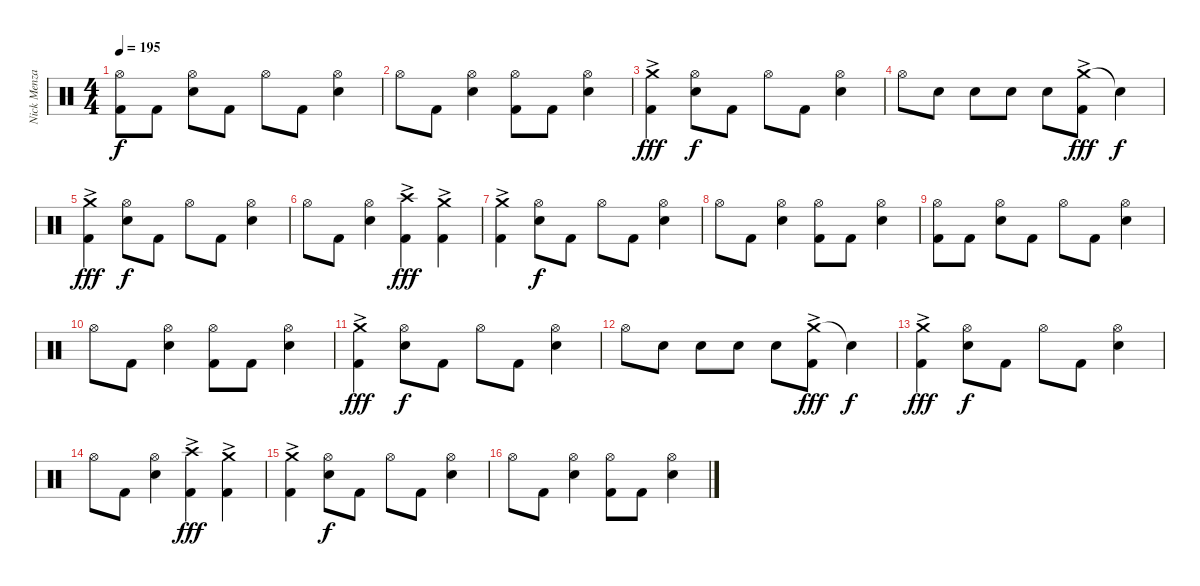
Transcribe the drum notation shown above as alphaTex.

\track ("Nick Menza" "Nick Menza") {instrument percussion}
\staff {score}
\articulation defaults
\ts (4 4)
\tempo 195
\clef neutral
\ks c
("Hi-Hat (open)" "Kick (hit) 2").8{dy f} "Kick (hit) 2".8 ("Hi-Hat (open)" "Snare (hit) 2").8 "Kick (hit) 2".8 "Hi-Hat (open)".8 "Kick (hit) 2".8 ("Hi-Hat (open)" "Snare (hit) 2").4 |
"Hi-Hat (open)".8 "Kick (hit) 2".8 ("Hi-Hat (open)" "Snare (hit) 2").4 ("Hi-Hat (open)" "Kick (hit) 2").8 "Kick (hit) 2".8 ("Hi-Hat (open)" "Snare (hit) 2").4 |
("Crash medium (hit)"{ac} "Kick (hit) 2").4{dy fff} ("Hi-Hat (open)" "Snare (hit) 2").8{dy f} "Kick (hit) 2".8 "Hi-Hat (open)".8 "Kick (hit) 2".8 ("Hi-Hat (open)" "Snare (hit) 2").4 |
"Hi-Hat (open)".8 "Snare (hit) 2".8 "Snare (hit) 2".8 "Snare (hit) 2".8 "Snare (hit) 2".8 ("Crash medium (hit)"{ac} "Kick (hit) 2").8{dy fff} "Snare (hit)"{t}.4{dy f} |
("Crash medium (hit)"{ac} "Kick (hit) 2").4{dy fff} ("Hi-Hat (open)" "Snare (hit) 2").8{dy f} "Kick (hit) 2".8 "Hi-Hat (open)".8 "Kick (hit) 2".8 ("Hi-Hat (open)" "Snare (hit) 2").4 |
"Hi-Hat (open)".8 "Kick (hit) 2".8 ("Hi-Hat (open)" "Snare (hit) 2").4 ("Crash high (hit)"{ac} "Kick (hit) 2").4{dy fff} ("Crash medium (hit)"{ac} "Kick (hit) 2").4 |
("Crash medium (hit)"{ac} "Kick (hit) 2").4 ("Hi-Hat (open)" "Snare (hit) 2").8{dy f} "Kick (hit) 2".8 "Hi-Hat (open)".8 "Kick (hit) 2".8 ("Hi-Hat (open)" "Snare (hit) 2").4 |
"Hi-Hat (open)".8 "Kick (hit) 2".8 ("Hi-Hat (open)" "Snare (hit) 2").4 ("Hi-Hat (open)" "Kick (hit) 2").8 "Kick (hit) 2".8 ("Hi-Hat (open)" "Snare (hit) 2").4 |
("Hi-Hat (open)" "Kick (hit) 2").8 "Kick (hit) 2".8 ("Hi-Hat (open)" "Snare (hit) 2").8 "Kick (hit) 2".8 "Hi-Hat (open)".8 "Kick (hit) 2".8 ("Hi-Hat (open)" "Snare (hit) 2").4 |
"Hi-Hat (open)".8 "Kick (hit) 2".8 ("Hi-Hat (open)" "Snare (hit) 2").4 ("Hi-Hat (open)" "Kick (hit) 2").8 "Kick (hit) 2".8 ("Hi-Hat (open)" "Snare (hit) 2").4 |
("Crash medium (hit)"{ac} "Kick (hit) 2").4{dy fff} ("Hi-Hat (open)" "Snare (hit) 2").8{dy f} "Kick (hit) 2".8 "Hi-Hat (open)".8 "Kick (hit) 2".8 ("Hi-Hat (open)" "Snare (hit) 2").4 |
"Hi-Hat (open)".8 "Snare (hit) 2".8 "Snare (hit) 2".8 "Snare (hit) 2".8 "Snare (hit) 2".8 ("Crash medium (hit)"{ac} "Kick (hit) 2").8{dy fff} "Snare (hit)"{t}.4{dy f} |
("Crash medium (hit)"{ac} "Kick (hit) 2").4{dy fff} ("Hi-Hat (open)" "Snare (hit) 2").8{dy f} "Kick (hit) 2".8 "Hi-Hat (open)".8 "Kick (hit) 2".8 ("Hi-Hat (open)" "Snare (hit) 2").4 |
"Hi-Hat (open)".8 "Kick (hit) 2".8 ("Hi-Hat (open)" "Snare (hit) 2").4 ("Crash high (hit)"{ac} "Kick (hit) 2").4{dy fff} ("Crash medium (hit)"{ac} "Kick (hit) 2").4 |
("Crash medium (hit)"{ac} "Kick (hit) 2").4 ("Hi-Hat (open)" "Snare (hit) 2").8{dy f} "Kick (hit) 2".8 "Hi-Hat (open)".8 "Kick (hit) 2".8 ("Hi-Hat (open)" "Snare (hit) 2").4 |
"Hi-Hat (open)".8 "Kick (hit) 2".8 ("Hi-Hat (open)" "Snare (hit) 2").4 ("Hi-Hat (open)" "Kick (hit) 2").8 "Kick (hit) 2".8 ("Hi-Hat (open)" "Snare (hit) 2").4
